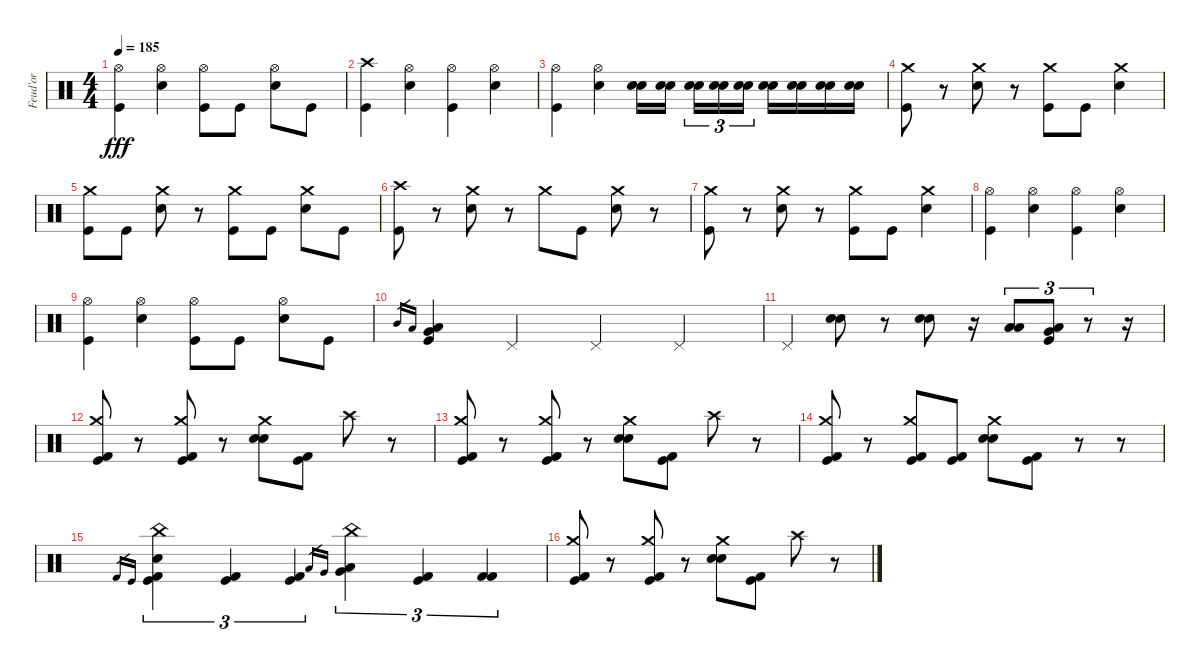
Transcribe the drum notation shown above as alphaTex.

\track ("Feud'or" "Feud'or") {instrument percussion}
\staff {score}
\articulation defaults
\ts (4 4)
\tempo 185
\clef neutral
\ks c
("Hi-Hat (open)" "Kick (hit)").4{dy fff} ("Hi-Hat (open)" "Snare (hit) 2").4 ("Hi-Hat (open)" "Kick (hit)").8 "Kick (hit)".8 ("Hi-Hat (open)" "Snare (hit) 2").8 "Kick (hit)".8 |
("Crash high (hit)" "Kick (hit)").4 ("Hi-Hat (open)" "Snare (hit) 2").4 ("Hi-Hat (open)" "Kick (hit)").4 ("Hi-Hat (open)" "Snare (hit) 2").4 |
("Hi-Hat (open)" "Kick (hit)").4 ("Hi-Hat (open)" "Snare (hit) 2").4 ("Electric Snare (hit)" "Snare (hit) 2").16 ("Electric Snare (hit)" "Snare (hit) 2").16{beam splitsecondary} ("Electric Snare (hit)" "Snare (hit) 2").16{tu (3 2)} ("Electric Snare (hit)" "Snare (hit) 2").16{tu (3 2)} ("Electric Snare (hit)" "Snare (hit) 2").16{tu (3 2)} ("Electric Snare (hit)" "Snare (hit) 2").16 ("Electric Snare (hit)" "Snare (hit) 2").16 ("Electric Snare (hit)" "Snare (hit) 2").16 ("Electric Snare (hit)" "Snare (hit) 2").16 |
("Crash medium (hit)" "Kick (hit)").8 r.8 ("Crash medium (hit)" "Snare (hit) 2").8 r.8 ("Crash medium (hit)" "Kick (hit)").8 "Kick (hit)".8 ("Crash medium (hit)" "Snare (hit) 2").4 |
("Crash medium (hit)" "Kick (hit)").8 "Kick (hit)".8 ("Crash medium (hit)" "Snare (hit) 2").8 r.8 ("Crash medium (hit)" "Kick (hit)").8 "Kick (hit)".8 ("Crash medium (hit)" "Snare (hit) 2").8 "Kick (hit)".8 |
("Crash high (hit)" "Kick (hit)").8 r.8 ("Crash medium (hit)" "Snare (hit) 2").8 r.8 "Crash medium (hit)".8 "Kick (hit)".8 ("Crash medium (hit)" "Snare (hit) 2").8 r.8 |
("Crash medium (hit)" "Kick (hit)").8 r.8 ("Crash medium (hit)" "Snare (hit) 2").8 r.8 ("Crash medium (hit)" "Kick (hit)").8 "Kick (hit)".8 ("Crash medium (hit)" "Snare (hit) 2").4 |
("Hi-Hat (open)" "Kick (hit)").4 ("Hi-Hat (open)" "Snare (hit) 2").4 ("Hi-Hat (open)" "Kick (hit)").4 ("Hi-Hat (open)" "Snare (hit) 2").4 |
("Hi-Hat (open)" "Kick (hit)").4 ("Hi-Hat (open)" "Snare (hit) 2").4 ("Hi-Hat (open)" "Kick (hit)").8 "Kick (hit)".8 ("Hi-Hat (open)" "Snare (hit) 2").8 "Kick (hit)".8 |
"Mid Tom (hit)".16{gr} "Low Tom (hit)".16{gr} ("Low Tom (hit)" "Very Low Tom (hit)" "Kick (hit)").4 "Pedal Hi-Hat (hit)".4 "Pedal Hi-Hat (hit)".4 "Pedal Hi-Hat (hit)".4 |
"Pedal Hi-Hat (hit)".4 ("Snare (hit) 2" "Electric Snare (hit)").8 r.8 ("Snare (hit) 2" "Electric Snare (hit)").8 r.16 ("Low Tom (hit)" "Low Tom (hit)").8{tu (3 2)} ("Low Floor Tom (hit)" "Very Low Tom (hit)" "Kick (hit)").8{tu (3 2)} r.8{tu (3 2)} r.16 |
("Crash medium (hit)" "Kick (hit) 2" "Kick (hit)").8 r.8 ("Crash medium (hit)" "Kick (hit) 2" "Kick (hit)").8 r.8 ("Crash medium (hit)" "Electric Snare (hit)" "Snare (hit) 2").8 ("Kick (hit) 2" "Kick (hit)").8 "Crash high (hit)".8 r.8 |
("Crash medium (hit)" "Kick (hit) 2" "Kick (hit)").8 r.8 ("Crash medium (hit)" "Kick (hit) 2" "Kick (hit)").8 r.8 ("Crash medium (hit)" "Electric Snare (hit)" "Snare (hit) 2").8 ("Kick (hit) 2" "Kick (hit)").8 "Crash high (hit)".8 r.8 |
("Crash medium (hit)" "Kick (hit) 2" "Kick (hit)").8 r.8 ("Crash medium (hit)" "Kick (hit) 2" "Kick (hit)").8 ("Kick (hit) 2" "Kick (hit)").8 ("Crash medium (hit)" "Electric Snare (hit)" "Snare (hit) 2").8 ("Kick (hit) 2" "Kick (hit)").8 r.8 r.8 |
"Kick (hit) 2".16{gr} "Kick (hit)".16{gr} ("China (hit)" "Snare (hit) 2" "Kick (hit) 2" "Kick (hit)").4{tu (3 2)} ("Kick (hit) 2" "Kick (hit)").4{tu (3 2)} ("Kick (hit) 2" "Kick (hit)").4{tu (3 2)} "Low Tom (hit)".16{gr} "Very Low Tom (hit)".16{gr} ("China (hit)" "Low Tom (hit)" "Very Low Tom (hit)").4{tu (3 2)} ("Kick (hit) 2" "Kick (hit)").4{tu (3 2)} ("Kick (hit) 2" "Kick (hit) 2").4{tu (3 2)} |
("Crash medium (hit)" "Kick (hit) 2" "Kick (hit)").8 r.8 ("Crash medium (hit)" "Kick (hit) 2" "Kick (hit)").8 r.8 ("Crash medium (hit)" "Electric Snare (hit)" "Snare (hit) 2").8 ("Kick (hit) 2" "Kick (hit)").8 "Crash high (hit)".8 r.8
